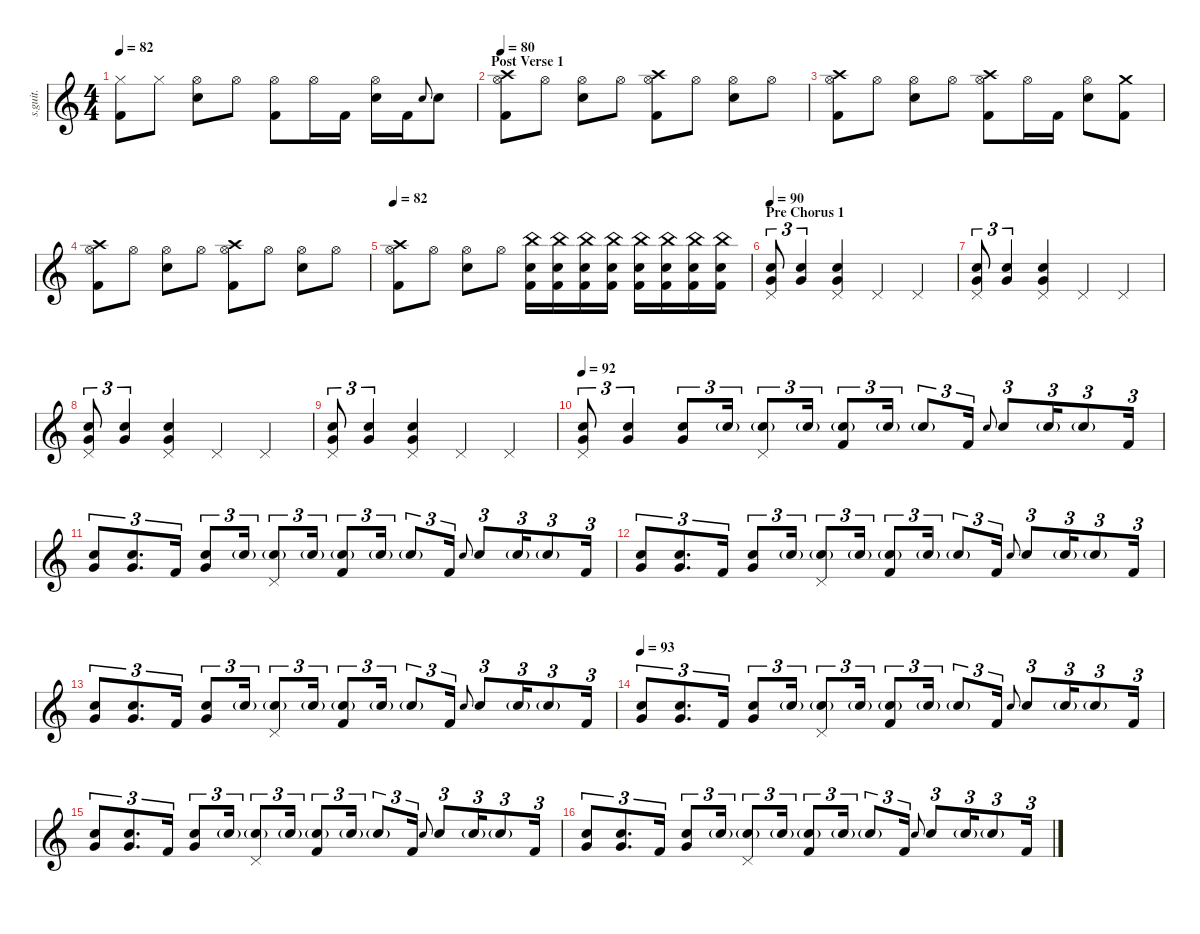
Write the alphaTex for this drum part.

\defaultSystemsLayout 4
\hideDynamics
\bracketExtendMode nobrackets
\track ("Brad Wilk - Drums" "s.guit.") {instrument percussion}
\staff {score}
\articulation defaults
\ts (4 4)
\tempo 82
\clef g2
\ks c
("Hi-Hat (closed)" "Kick (hit) 2").8{lyrics (0 "") lyrics (1 "") lyrics (2 "") lyrics (3 "") lyrics (4 "") dy fff} "Hi-Hat (closed)".8{lyrics (0 "") lyrics (1 "") lyrics (2 "") lyrics (3 "") lyrics (4 "")} ("Hi-Hat (open)" "Snare (hit) 2").8{lyrics (0 "") lyrics (1 "") lyrics (2 "") lyrics (3 "") lyrics (4 "")} "Hi-Hat (open)".8{lyrics (0 "") lyrics (1 "") lyrics (2 "") lyrics (3 "") lyrics (4 "")} ("Hi-Hat (open)" "Kick (hit) 2").8{lyrics (0 "") lyrics (1 "") lyrics (2 "") lyrics (3 "") lyrics (4 "")} "Hi-Hat (open)".16{lyrics (0 "") lyrics (1 "") lyrics (2 "") lyrics (3 "") lyrics (4 "")} "Kick (hit) 2".16{lyrics (0 "") lyrics (1 "") lyrics (2 "") lyrics (3 "") lyrics (4 "")} ("Hi-Hat (open)" "Snare (hit) 2").16{lyrics (0 "") lyrics (1 "") lyrics (2 "") lyrics (3 "") lyrics (4 "")} "Kick (hit) 2".16{lyrics (0 "") lyrics (1 "") lyrics (2 "") lyrics (3 "") lyrics (4 "")} "Snare (hit) 2".8{lyrics (0 "") lyrics (1 "") lyrics (2 "") lyrics (3 "") lyrics (4 "") gr onbeat} "Snare (hit) 2".8{lyrics (0 "") lyrics (1 "") lyrics (2 "") lyrics (3 "") lyrics (4 "")} |
\section ("" "Post Verse 1")
\tempo 80
("Crash high (hit)" "Hi-Hat (open)" "Kick (hit) 2").8{lyrics (0 "") lyrics (1 "") lyrics (2 "") lyrics (3 "") lyrics (4 "")} "Hi-Hat (open)".8{lyrics (0 "") lyrics (1 "") lyrics (2 "") lyrics (3 "") lyrics (4 "")} ("Hi-Hat (open)" "Snare (hit) 2").8{lyrics (0 "") lyrics (1 "") lyrics (2 "") lyrics (3 "") lyrics (4 "")} "Hi-Hat (open)".8{lyrics (0 "") lyrics (1 "") lyrics (2 "") lyrics (3 "") lyrics (4 "")} ("Crash high (hit)" "Hi-Hat (open)" "Kick (hit) 2").8{lyrics (0 "") lyrics (1 "") lyrics (2 "") lyrics (3 "") lyrics (4 "")} "Hi-Hat (open)".8{lyrics (0 "") lyrics (1 "") lyrics (2 "") lyrics (3 "") lyrics (4 "")} ("Hi-Hat (open)" "Snare (hit) 2").8{lyrics (0 "") lyrics (1 "") lyrics (2 "") lyrics (3 "") lyrics (4 "")} "Hi-Hat (open)".8{lyrics (0 "") lyrics (1 "") lyrics (2 "") lyrics (3 "") lyrics (4 "")} |
("Crash high (hit)" "Hi-Hat (open)" "Kick (hit) 2").8{lyrics (0 "") lyrics (1 "") lyrics (2 "") lyrics (3 "") lyrics (4 "")} "Hi-Hat (open)".8{lyrics (0 "") lyrics (1 "") lyrics (2 "") lyrics (3 "") lyrics (4 "")} ("Hi-Hat (open)" "Snare (hit) 2").8{lyrics (0 "") lyrics (1 "") lyrics (2 "") lyrics (3 "") lyrics (4 "")} "Hi-Hat (open)".8{lyrics (0 "") lyrics (1 "") lyrics (2 "") lyrics (3 "") lyrics (4 "")} ("Crash high (hit)" "Hi-Hat (open)" "Kick (hit) 2").8{lyrics (0 "") lyrics (1 "") lyrics (2 "") lyrics (3 "") lyrics (4 "")} "Hi-Hat (open)".16{lyrics (0 "") lyrics (1 "") lyrics (2 "") lyrics (3 "") lyrics (4 "")} "Kick (hit) 2".16{lyrics (0 "") lyrics (1 "") lyrics (2 "") lyrics (3 "") lyrics (4 "")} ("Hi-Hat (open)" "Snare (hit) 2").8{lyrics (0 "") lyrics (1 "") lyrics (2 "") lyrics (3 "") lyrics (4 "")} ("Crash medium (hit)" "Kick (hit) 2").8{lyrics (0 "") lyrics (1 "") lyrics (2 "") lyrics (3 "") lyrics (4 "")} |
("Crash high (hit)" "Hi-Hat (open)" "Kick (hit) 2").8{lyrics (0 "") lyrics (1 "") lyrics (2 "") lyrics (3 "") lyrics (4 "")} "Hi-Hat (open)".8{lyrics (0 "") lyrics (1 "") lyrics (2 "") lyrics (3 "") lyrics (4 "")} ("Hi-Hat (open)" "Snare (hit) 2").8{lyrics (0 "") lyrics (1 "") lyrics (2 "") lyrics (3 "") lyrics (4 "")} "Hi-Hat (open)".8{lyrics (0 "") lyrics (1 "") lyrics (2 "") lyrics (3 "") lyrics (4 "")} ("Crash high (hit)" "Hi-Hat (open)" "Kick (hit) 2").8{lyrics (0 "") lyrics (1 "") lyrics (2 "") lyrics (3 "") lyrics (4 "")} "Hi-Hat (open)".8{lyrics (0 "") lyrics (1 "") lyrics (2 "") lyrics (3 "") lyrics (4 "")} ("Hi-Hat (open)" "Snare (hit) 2").8{lyrics (0 "") lyrics (1 "") lyrics (2 "") lyrics (3 "") lyrics (4 "")} "Hi-Hat (open)".8{lyrics (0 "") lyrics (1 "") lyrics (2 "") lyrics (3 "") lyrics (4 "")} |
\tempo 82
("Crash high (hit)" "Hi-Hat (open)" "Kick (hit) 2").8{lyrics (0 "") lyrics (1 "") lyrics (2 "") lyrics (3 "") lyrics (4 "")} "Hi-Hat (open)".8{lyrics (0 "") lyrics (1 "") lyrics (2 "") lyrics (3 "") lyrics (4 "")} ("Hi-Hat (open)" "Snare (hit) 2").8{lyrics (0 "") lyrics (1 "") lyrics (2 "") lyrics (3 "") lyrics (4 "")} "Hi-Hat (open)".8{lyrics (0 "") lyrics (1 "") lyrics (2 "") lyrics (3 "") lyrics (4 "")} ("Snare (hit) 2" "Kick (hit) 2" "China (hit)").16{lyrics (0 "") lyrics (1 "") lyrics (2 "") lyrics (3 "") lyrics (4 "")} ("Snare (hit) 2" "Kick (hit) 2" "China (hit)").16{lyrics (0 "") lyrics (1 "") lyrics (2 "") lyrics (3 "") lyrics (4 "") dy mp} ("Snare (hit) 2" "Kick (hit) 2" "China (hit)").16{lyrics (0 "") lyrics (1 "") lyrics (2 "") lyrics (3 "") lyrics (4 "")} ("Snare (hit) 2" "Kick (hit) 2" "China (hit)").16{lyrics (0 "") lyrics (1 "") lyrics (2 "") lyrics (3 "") lyrics (4 "")} ("Snare (hit) 2" "Kick (hit) 2" "China (hit)").16{lyrics (0 "") lyrics (1 "") lyrics (2 "") lyrics (3 "") lyrics (4 "")} ("Snare (hit) 2" "Kick (hit) 2" "China (hit)").16{lyrics (0 "") lyrics (1 "") lyrics (2 "") lyrics (3 "") lyrics (4 "")} ("Snare (hit) 2" "Kick (hit) 2" "China (hit)").16{lyrics (0 "") lyrics (1 "") lyrics (2 "") lyrics (3 "") lyrics (4 "")} ("Snare (hit) 2" "Kick (hit) 2" "China (hit)").16{lyrics (0 "") lyrics (1 "") lyrics (2 "") lyrics (3 "") lyrics (4 "")} |
\section ("" "Pre Chorus 1")
\tempo 90
("Very Low Tom (hit)" "Snare (hit) 2" "Pedal Hi-Hat (hit)").8{tu (3 2) lyrics (0 "") lyrics (1 "") lyrics (2 "") lyrics (3 "") lyrics (4 "")} ("Very Low Tom (hit)" "Snare (hit) 2").4{tu (3 2) lyrics (0 "") lyrics (1 "") lyrics (2 "") lyrics (3 "") lyrics (4 "")} ("Very Low Tom (hit)" "Snare (hit) 2" "Pedal Hi-Hat (hit)").4{lyrics (0 "") lyrics (1 "") lyrics (2 "") lyrics (3 "") lyrics (4 "")} "Pedal Hi-Hat (hit)".4{lyrics (0 "") lyrics (1 "") lyrics (2 "") lyrics (3 "") lyrics (4 "")} "Pedal Hi-Hat (hit)".4{lyrics (0 "") lyrics (1 "") lyrics (2 "") lyrics (3 "") lyrics (4 "")} |
("Very Low Tom (hit)" "Snare (hit) 2" "Pedal Hi-Hat (hit)").8{tu (3 2) lyrics (0 "") lyrics (1 "") lyrics (2 "") lyrics (3 "") lyrics (4 "")} ("Very Low Tom (hit)" "Snare (hit) 2").4{tu (3 2) lyrics (0 "") lyrics (1 "") lyrics (2 "") lyrics (3 "") lyrics (4 "")} ("Very Low Tom (hit)" "Snare (hit) 2" "Pedal Hi-Hat (hit)").4{lyrics (0 "") lyrics (1 "") lyrics (2 "") lyrics (3 "") lyrics (4 "")} "Pedal Hi-Hat (hit)".4{lyrics (0 "") lyrics (1 "") lyrics (2 "") lyrics (3 "") lyrics (4 "")} "Pedal Hi-Hat (hit)".4{lyrics (0 "") lyrics (1 "") lyrics (2 "") lyrics (3 "") lyrics (4 "")} |
("Very Low Tom (hit)" "Snare (hit) 2" "Pedal Hi-Hat (hit)").8{tu (3 2) lyrics (0 "") lyrics (1 "") lyrics (2 "") lyrics (3 "") lyrics (4 "")} ("Very Low Tom (hit)" "Snare (hit) 2").4{tu (3 2) lyrics (0 "") lyrics (1 "") lyrics (2 "") lyrics (3 "") lyrics (4 "")} ("Very Low Tom (hit)" "Snare (hit) 2" "Pedal Hi-Hat (hit)").4{lyrics (0 "") lyrics (1 "") lyrics (2 "") lyrics (3 "") lyrics (4 "")} "Pedal Hi-Hat (hit)".4{lyrics (0 "") lyrics (1 "") lyrics (2 "") lyrics (3 "") lyrics (4 "")} "Pedal Hi-Hat (hit)".4{lyrics (0 "") lyrics (1 "") lyrics (2 "") lyrics (3 "") lyrics (4 "")} |
("Very Low Tom (hit)" "Snare (hit) 2" "Pedal Hi-Hat (hit)").8{tu (3 2) lyrics (0 "") lyrics (1 "") lyrics (2 "") lyrics (3 "") lyrics (4 "")} ("Very Low Tom (hit)" "Snare (hit) 2").4{tu (3 2) lyrics (0 "") lyrics (1 "") lyrics (2 "") lyrics (3 "") lyrics (4 "")} ("Very Low Tom (hit)" "Snare (hit) 2" "Pedal Hi-Hat (hit)").4{lyrics (0 "") lyrics (1 "") lyrics (2 "") lyrics (3 "") lyrics (4 "")} "Pedal Hi-Hat (hit)".4{lyrics (0 "") lyrics (1 "") lyrics (2 "") lyrics (3 "") lyrics (4 "")} "Pedal Hi-Hat (hit)".4{lyrics (0 "") lyrics (1 "") lyrics (2 "") lyrics (3 "") lyrics (4 "")} |
\tempo 92
("Very Low Tom (hit)" "Snare (hit) 2" "Pedal Hi-Hat (hit)").8{tu (3 2) lyrics (0 "") lyrics (1 "") lyrics (2 "") lyrics (3 "") lyrics (4 "")} ("Very Low Tom (hit)" "Snare (hit) 2").4{tu (3 2) lyrics (0 "") lyrics (1 "") lyrics (2 "") lyrics (3 "") lyrics (4 "")} ("Very Low Tom (hit)" "Snare (hit) 2").8{tu (3 2) lyrics (0 "") lyrics (1 "") lyrics (2 "") lyrics (3 "") lyrics (4 "")} "Snare (hit) 2"{g}.16{tu (3 2) lyrics (0 "") lyrics (1 "") lyrics (2 "") lyrics (3 "") lyrics (4 "")} ("Snare (hit) 2"{g} "Pedal Hi-Hat (hit)").8{tu (3 2) lyrics (0 "") lyrics (1 "") lyrics (2 "") lyrics (3 "") lyrics (4 "")} "Snare (hit) 2"{g}.16{tu (3 2) lyrics (0 "") lyrics (1 "") lyrics (2 "") lyrics (3 "") lyrics (4 "")} ("Snare (hit) 2"{g} "Kick (hit) 2").8{tu (3 2) lyrics (0 "") lyrics (1 "") lyrics (2 "") lyrics (3 "") lyrics (4 "") dy f} "Snare (hit) 2"{g}.16{tu (3 2) lyrics (0 "") lyrics (1 "") lyrics (2 "") lyrics (3 "") lyrics (4 "") dy mp} "Snare (hit) 2"{g}.8{tu (3 2) lyrics (0 "") lyrics (1 "") lyrics (2 "") lyrics (3 "") lyrics (4 "")} "Kick (hit) 2".16{tu (3 2) lyrics (0 "") lyrics (1 "") lyrics (2 "") lyrics (3 "") lyrics (4 "") dy f} "Snare (hit) 2".8{tu (3 2) lyrics (0 "") lyrics (1 "") lyrics (2 "") lyrics (3 "") lyrics (4 "") gr onbeat} "Snare (hit) 2".8{tu (3 2) lyrics (0 "") lyrics (1 "") lyrics (2 "") lyrics (3 "") lyrics (4 "")} "Snare (hit) 2"{g}.16{tu (3 2) lyrics (0 "") lyrics (1 "") lyrics (2 "") lyrics (3 "") lyrics (4 "") dy mp} "Snare (hit) 2"{g}.8{tu (3 2) lyrics (0 "") lyrics (1 "") lyrics (2 "") lyrics (3 "") lyrics (4 "") dy mf} "Kick (hit) 2".16{tu (3 2) lyrics (0 "") lyrics (1 "") lyrics (2 "") lyrics (3 "") lyrics (4 "") dy f} |
("Very Low Tom (hit)" "Snare (hit) 2").8{tu (3 2) lyrics (0 "") lyrics (1 "") lyrics (2 "") lyrics (3 "") lyrics (4 "")} ("Very Low Tom (hit)" "Snare (hit) 2").8{d tu (3 2) lyrics (0 "") lyrics (1 "") lyrics (2 "") lyrics (3 "") lyrics (4 "")} "Kick (hit) 2".16{tu (3 2) lyrics (0 "") lyrics (1 "") lyrics (2 "") lyrics (3 "") lyrics (4 "")} ("Very Low Tom (hit)" "Snare (hit) 2").8{tu (3 2) lyrics (0 "") lyrics (1 "") lyrics (2 "") lyrics (3 "") lyrics (4 "")} "Snare (hit) 2"{g}.16{tu (3 2) lyrics (0 "") lyrics (1 "") lyrics (2 "") lyrics (3 "") lyrics (4 "") dy mp} ("Snare (hit) 2"{g} "Pedal Hi-Hat (hit)").8{tu (3 2) lyrics (0 "") lyrics (1 "") lyrics (2 "") lyrics (3 "") lyrics (4 "")} "Snare (hit) 2"{g}.16{tu (3 2) lyrics (0 "") lyrics (1 "") lyrics (2 "") lyrics (3 "") lyrics (4 "")} ("Snare (hit) 2"{g} "Kick (hit) 2").8{tu (3 2) lyrics (0 "") lyrics (1 "") lyrics (2 "") lyrics (3 "") lyrics (4 "") dy f} "Snare (hit) 2"{g}.16{tu (3 2) lyrics (0 "") lyrics (1 "") lyrics (2 "") lyrics (3 "") lyrics (4 "") dy mp} "Snare (hit) 2"{g}.8{tu (3 2) lyrics (0 "") lyrics (1 "") lyrics (2 "") lyrics (3 "") lyrics (4 "")} "Kick (hit) 2".16{tu (3 2) lyrics (0 "") lyrics (1 "") lyrics (2 "") lyrics (3 "") lyrics (4 "") dy f} "Snare (hit) 2".8{tu (3 2) lyrics (0 "") lyrics (1 "") lyrics (2 "") lyrics (3 "") lyrics (4 "") gr onbeat} "Snare (hit) 2".8{tu (3 2) lyrics (0 "") lyrics (1 "") lyrics (2 "") lyrics (3 "") lyrics (4 "")} "Snare (hit) 2"{g}.16{tu (3 2) lyrics (0 "") lyrics (1 "") lyrics (2 "") lyrics (3 "") lyrics (4 "") dy mp} "Snare (hit) 2"{g}.8{tu (3 2) lyrics (0 "") lyrics (1 "") lyrics (2 "") lyrics (3 "") lyrics (4 "") dy mf} "Kick (hit) 2".16{tu (3 2) lyrics (0 "") lyrics (1 "") lyrics (2 "") lyrics (3 "") lyrics (4 "") dy f} |
("Very Low Tom (hit)" "Snare (hit) 2").8{tu (3 2) lyrics (0 "") lyrics (1 "") lyrics (2 "") lyrics (3 "") lyrics (4 "")} ("Very Low Tom (hit)" "Snare (hit) 2").8{d tu (3 2) lyrics (0 "") lyrics (1 "") lyrics (2 "") lyrics (3 "") lyrics (4 "")} "Kick (hit) 2".16{tu (3 2) lyrics (0 "") lyrics (1 "") lyrics (2 "") lyrics (3 "") lyrics (4 "")} ("Very Low Tom (hit)" "Snare (hit) 2").8{tu (3 2) lyrics (0 "") lyrics (1 "") lyrics (2 "") lyrics (3 "") lyrics (4 "")} "Snare (hit) 2"{g}.16{tu (3 2) lyrics (0 "") lyrics (1 "") lyrics (2 "") lyrics (3 "") lyrics (4 "") dy mp} ("Snare (hit) 2"{g} "Pedal Hi-Hat (hit)").8{tu (3 2) lyrics (0 "") lyrics (1 "") lyrics (2 "") lyrics (3 "") lyrics (4 "")} "Snare (hit) 2"{g}.16{tu (3 2) lyrics (0 "") lyrics (1 "") lyrics (2 "") lyrics (3 "") lyrics (4 "")} ("Snare (hit) 2"{g} "Kick (hit) 2").8{tu (3 2) lyrics (0 "") lyrics (1 "") lyrics (2 "") lyrics (3 "") lyrics (4 "") dy f} "Snare (hit) 2"{g}.16{tu (3 2) lyrics (0 "") lyrics (1 "") lyrics (2 "") lyrics (3 "") lyrics (4 "") dy mp} "Snare (hit) 2"{g}.8{tu (3 2) lyrics (0 "") lyrics (1 "") lyrics (2 "") lyrics (3 "") lyrics (4 "")} "Kick (hit) 2".16{tu (3 2) lyrics (0 "") lyrics (1 "") lyrics (2 "") lyrics (3 "") lyrics (4 "") dy f} "Snare (hit) 2".8{tu (3 2) lyrics (0 "") lyrics (1 "") lyrics (2 "") lyrics (3 "") lyrics (4 "") gr onbeat} "Snare (hit) 2".8{tu (3 2) lyrics (0 "") lyrics (1 "") lyrics (2 "") lyrics (3 "") lyrics (4 "")} "Snare (hit) 2"{g}.16{tu (3 2) lyrics (0 "") lyrics (1 "") lyrics (2 "") lyrics (3 "") lyrics (4 "") dy mp} "Snare (hit) 2"{g}.8{tu (3 2) lyrics (0 "") lyrics (1 "") lyrics (2 "") lyrics (3 "") lyrics (4 "") dy mf} "Kick (hit) 2".16{tu (3 2) lyrics (0 "") lyrics (1 "") lyrics (2 "") lyrics (3 "") lyrics (4 "") dy f} |
("Very Low Tom (hit)" "Snare (hit) 2").8{tu (3 2) lyrics (0 "") lyrics (1 "") lyrics (2 "") lyrics (3 "") lyrics (4 "")} ("Very Low Tom (hit)" "Snare (hit) 2").8{d tu (3 2) lyrics (0 "") lyrics (1 "") lyrics (2 "") lyrics (3 "") lyrics (4 "")} "Kick (hit) 2".16{tu (3 2) lyrics (0 "") lyrics (1 "") lyrics (2 "") lyrics (3 "") lyrics (4 "")} ("Very Low Tom (hit)" "Snare (hit) 2").8{tu (3 2) lyrics (0 "") lyrics (1 "") lyrics (2 "") lyrics (3 "") lyrics (4 "")} "Snare (hit) 2"{g}.16{tu (3 2) lyrics (0 "") lyrics (1 "") lyrics (2 "") lyrics (3 "") lyrics (4 "") dy mp} ("Snare (hit) 2"{g} "Pedal Hi-Hat (hit)").8{tu (3 2) lyrics (0 "") lyrics (1 "") lyrics (2 "") lyrics (3 "") lyrics (4 "")} "Snare (hit) 2"{g}.16{tu (3 2) lyrics (0 "") lyrics (1 "") lyrics (2 "") lyrics (3 "") lyrics (4 "")} ("Snare (hit) 2"{g} "Kick (hit) 2").8{tu (3 2) lyrics (0 "") lyrics (1 "") lyrics (2 "") lyrics (3 "") lyrics (4 "") dy f} "Snare (hit) 2"{g}.16{tu (3 2) lyrics (0 "") lyrics (1 "") lyrics (2 "") lyrics (3 "") lyrics (4 "") dy mp} "Snare (hit) 2"{g}.8{tu (3 2) lyrics (0 "") lyrics (1 "") lyrics (2 "") lyrics (3 "") lyrics (4 "")} "Kick (hit) 2".16{tu (3 2) lyrics (0 "") lyrics (1 "") lyrics (2 "") lyrics (3 "") lyrics (4 "") dy f} "Snare (hit) 2".8{tu (3 2) lyrics (0 "") lyrics (1 "") lyrics (2 "") lyrics (3 "") lyrics (4 "") gr onbeat} "Snare (hit) 2".8{tu (3 2) lyrics (0 "") lyrics (1 "") lyrics (2 "") lyrics (3 "") lyrics (4 "")} "Snare (hit) 2"{g}.16{tu (3 2) lyrics (0 "") lyrics (1 "") lyrics (2 "") lyrics (3 "") lyrics (4 "") dy mp} "Snare (hit) 2"{g}.8{tu (3 2) lyrics (0 "") lyrics (1 "") lyrics (2 "") lyrics (3 "") lyrics (4 "") dy mf} "Kick (hit) 2".16{tu (3 2) lyrics (0 "") lyrics (1 "") lyrics (2 "") lyrics (3 "") lyrics (4 "") dy f} |
\tempo 93
("Very Low Tom (hit)" "Snare (hit) 2").8{tu (3 2) lyrics (0 "") lyrics (1 "") lyrics (2 "") lyrics (3 "") lyrics (4 "")} ("Very Low Tom (hit)" "Snare (hit) 2").8{d tu (3 2) lyrics (0 "") lyrics (1 "") lyrics (2 "") lyrics (3 "") lyrics (4 "")} "Kick (hit) 2".16{tu (3 2) lyrics (0 "") lyrics (1 "") lyrics (2 "") lyrics (3 "") lyrics (4 "")} ("Very Low Tom (hit)" "Snare (hit) 2").8{tu (3 2) lyrics (0 "") lyrics (1 "") lyrics (2 "") lyrics (3 "") lyrics (4 "")} "Snare (hit) 2"{g}.16{tu (3 2) lyrics (0 "") lyrics (1 "") lyrics (2 "") lyrics (3 "") lyrics (4 "") dy mp} ("Snare (hit) 2"{g} "Pedal Hi-Hat (hit)").8{tu (3 2) lyrics (0 "") lyrics (1 "") lyrics (2 "") lyrics (3 "") lyrics (4 "")} "Snare (hit) 2"{g}.16{tu (3 2) lyrics (0 "") lyrics (1 "") lyrics (2 "") lyrics (3 "") lyrics (4 "")} ("Snare (hit) 2"{g} "Kick (hit) 2").8{tu (3 2) lyrics (0 "") lyrics (1 "") lyrics (2 "") lyrics (3 "") lyrics (4 "") dy f} "Snare (hit) 2"{g}.16{tu (3 2) lyrics (0 "") lyrics (1 "") lyrics (2 "") lyrics (3 "") lyrics (4 "") dy mp} "Snare (hit) 2"{g}.8{tu (3 2) lyrics (0 "") lyrics (1 "") lyrics (2 "") lyrics (3 "") lyrics (4 "")} "Kick (hit) 2".16{tu (3 2) lyrics (0 "") lyrics (1 "") lyrics (2 "") lyrics (3 "") lyrics (4 "") dy f} "Snare (hit) 2".8{tu (3 2) lyrics (0 "") lyrics (1 "") lyrics (2 "") lyrics (3 "") lyrics (4 "") gr onbeat} "Snare (hit) 2".8{tu (3 2) lyrics (0 "") lyrics (1 "") lyrics (2 "") lyrics (3 "") lyrics (4 "")} "Snare (hit) 2"{g}.16{tu (3 2) lyrics (0 "") lyrics (1 "") lyrics (2 "") lyrics (3 "") lyrics (4 "") dy mp} "Snare (hit) 2"{g}.8{tu (3 2) lyrics (0 "") lyrics (1 "") lyrics (2 "") lyrics (3 "") lyrics (4 "") dy mf} "Kick (hit) 2".16{tu (3 2) lyrics (0 "") lyrics (1 "") lyrics (2 "") lyrics (3 "") lyrics (4 "") dy f} |
("Very Low Tom (hit)" "Snare (hit) 2").8{tu (3 2) lyrics (0 "") lyrics (1 "") lyrics (2 "") lyrics (3 "") lyrics (4 "")} ("Very Low Tom (hit)" "Snare (hit) 2").8{d tu (3 2) lyrics (0 "") lyrics (1 "") lyrics (2 "") lyrics (3 "") lyrics (4 "")} "Kick (hit) 2".16{tu (3 2) lyrics (0 "") lyrics (1 "") lyrics (2 "") lyrics (3 "") lyrics (4 "")} ("Very Low Tom (hit)" "Snare (hit) 2").8{tu (3 2) lyrics (0 "") lyrics (1 "") lyrics (2 "") lyrics (3 "") lyrics (4 "")} "Snare (hit) 2"{g}.16{tu (3 2) lyrics (0 "") lyrics (1 "") lyrics (2 "") lyrics (3 "") lyrics (4 "") dy mp} ("Snare (hit) 2"{g} "Pedal Hi-Hat (hit)").8{tu (3 2) lyrics (0 "") lyrics (1 "") lyrics (2 "") lyrics (3 "") lyrics (4 "")} "Snare (hit) 2"{g}.16{tu (3 2) lyrics (0 "") lyrics (1 "") lyrics (2 "") lyrics (3 "") lyrics (4 "")} ("Snare (hit) 2"{g} "Kick (hit) 2").8{tu (3 2) lyrics (0 "") lyrics (1 "") lyrics (2 "") lyrics (3 "") lyrics (4 "") dy f} "Snare (hit) 2"{g}.16{tu (3 2) lyrics (0 "") lyrics (1 "") lyrics (2 "") lyrics (3 "") lyrics (4 "") dy mp} "Snare (hit) 2"{g}.8{tu (3 2) lyrics (0 "") lyrics (1 "") lyrics (2 "") lyrics (3 "") lyrics (4 "")} "Kick (hit) 2".16{tu (3 2) lyrics (0 "") lyrics (1 "") lyrics (2 "") lyrics (3 "") lyrics (4 "") dy f} "Snare (hit) 2".8{tu (3 2) lyrics (0 "") lyrics (1 "") lyrics (2 "") lyrics (3 "") lyrics (4 "") gr onbeat} "Snare (hit) 2".8{tu (3 2) lyrics (0 "") lyrics (1 "") lyrics (2 "") lyrics (3 "") lyrics (4 "")} "Snare (hit) 2"{g}.16{tu (3 2) lyrics (0 "") lyrics (1 "") lyrics (2 "") lyrics (3 "") lyrics (4 "") dy mp} "Snare (hit) 2"{g}.8{tu (3 2) lyrics (0 "") lyrics (1 "") lyrics (2 "") lyrics (3 "") lyrics (4 "") dy mf} "Kick (hit) 2".16{tu (3 2) lyrics (0 "") lyrics (1 "") lyrics (2 "") lyrics (3 "") lyrics (4 "") dy f} |
("Very Low Tom (hit)" "Snare (hit) 2").8{tu (3 2) lyrics (0 "") lyrics (1 "") lyrics (2 "") lyrics (3 "") lyrics (4 "")} ("Very Low Tom (hit)" "Snare (hit) 2").8{d tu (3 2) lyrics (0 "") lyrics (1 "") lyrics (2 "") lyrics (3 "") lyrics (4 "")} "Kick (hit) 2".16{tu (3 2) lyrics (0 "") lyrics (1 "") lyrics (2 "") lyrics (3 "") lyrics (4 "")} ("Very Low Tom (hit)" "Snare (hit) 2").8{tu (3 2) lyrics (0 "") lyrics (1 "") lyrics (2 "") lyrics (3 "") lyrics (4 "")} "Snare (hit) 2"{g}.16{tu (3 2) lyrics (0 "") lyrics (1 "") lyrics (2 "") lyrics (3 "") lyrics (4 "") dy mp} ("Snare (hit) 2"{g} "Pedal Hi-Hat (hit)").8{tu (3 2) lyrics (0 "") lyrics (1 "") lyrics (2 "") lyrics (3 "") lyrics (4 "")} "Snare (hit) 2"{g}.16{tu (3 2) lyrics (0 "") lyrics (1 "") lyrics (2 "") lyrics (3 "") lyrics (4 "")} ("Snare (hit) 2"{g} "Kick (hit) 2").8{tu (3 2) lyrics (0 "") lyrics (1 "") lyrics (2 "") lyrics (3 "") lyrics (4 "") dy f} "Snare (hit) 2"{g}.16{tu (3 2) lyrics (0 "") lyrics (1 "") lyrics (2 "") lyrics (3 "") lyrics (4 "") dy mp} "Snare (hit) 2"{g}.8{tu (3 2) lyrics (0 "") lyrics (1 "") lyrics (2 "") lyrics (3 "") lyrics (4 "")} "Kick (hit) 2".16{tu (3 2) lyrics (0 "") lyrics (1 "") lyrics (2 "") lyrics (3 "") lyrics (4 "") dy f} "Snare (hit) 2".8{tu (3 2) lyrics (0 "") lyrics (1 "") lyrics (2 "") lyrics (3 "") lyrics (4 "") gr onbeat} "Snare (hit) 2".8{tu (3 2) lyrics (0 "") lyrics (1 "") lyrics (2 "") lyrics (3 "") lyrics (4 "")} "Snare (hit) 2"{g}.16{tu (3 2) lyrics (0 "") lyrics (1 "") lyrics (2 "") lyrics (3 "") lyrics (4 "") dy mp} "Snare (hit) 2"{g}.8{tu (3 2) lyrics (0 "") lyrics (1 "") lyrics (2 "") lyrics (3 "") lyrics (4 "") dy mf} "Kick (hit) 2".16{tu (3 2) lyrics (0 "") lyrics (1 "") lyrics (2 "") lyrics (3 "") lyrics (4 "") dy f}
